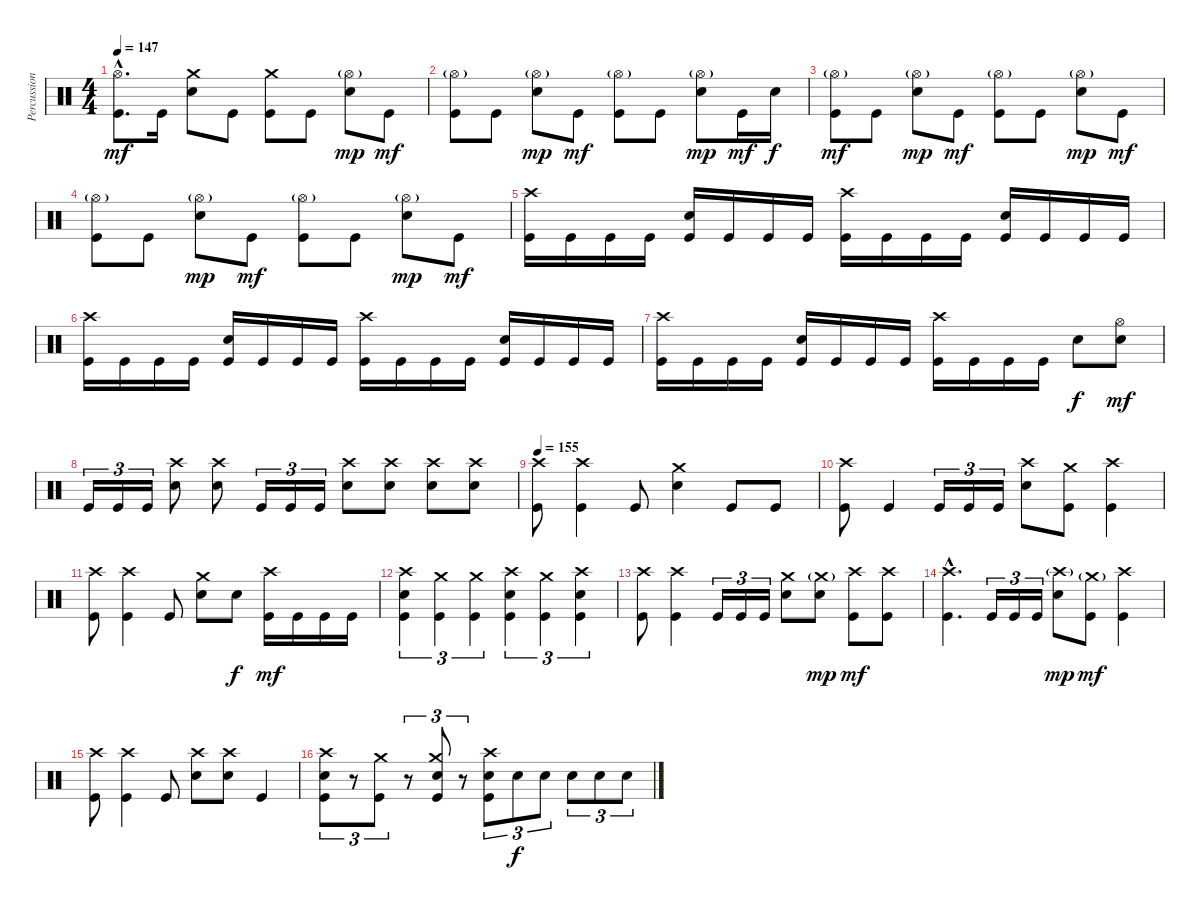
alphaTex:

\track ("Percussion" "Percussion") {instrument percussion}
\staff {score}
\articulation defaults
\ts (4 4)
\tempo 147
\clef neutral
\ks c
("Hi-Hat (open)"{hac} "Kick (hit)"{hac}).8{d dy mf} "Kick (hit)".16 ("Crash medium (hit)" "Electric Snare (hit)").8 "Kick (hit)".8 ("Crash medium (hit)" "Kick (hit)").8 "Kick (hit)".8 ("Hi-Hat (open)"{g} "Electric Snare (hit)").8{dy mp} "Kick (hit)".8{dy mf} |
("Hi-Hat (open)"{g} "Kick (hit)").8 "Kick (hit)".8 ("Hi-Hat (open)"{g} "Electric Snare (hit)").8{dy mp} "Kick (hit)".8{dy mf} ("Hi-Hat (open)"{g} "Kick (hit)").8 "Kick (hit)".8 ("Hi-Hat (open)"{g} "Electric Snare (hit)").8{dy mp} "Kick (hit)".16{dy mf} "Electric Snare (hit)".16{dy f} |
("Hi-Hat (open)"{g} "Kick (hit)").8{dy mf} "Kick (hit)".8 ("Hi-Hat (open)"{g} "Electric Snare (hit)").8{dy mp} "Kick (hit)".8{dy mf} ("Hi-Hat (open)"{g} "Kick (hit)").8 "Kick (hit)".8 ("Hi-Hat (open)"{g} "Electric Snare (hit)").8{dy mp} "Kick (hit)".8{dy mf} |
("Hi-Hat (open)"{g} "Kick (hit)").8 "Kick (hit)".8 ("Hi-Hat (open)"{g} "Electric Snare (hit)").8{dy mp} "Kick (hit)".8{dy mf} ("Hi-Hat (open)"{g} "Kick (hit)").8 "Kick (hit)".8 ("Hi-Hat (open)"{g} "Electric Snare (hit)").8{dy mp} "Kick (hit)".8{dy mf} |
("Crash high (hit)" "Kick (hit)").16 "Kick (hit)".16 "Kick (hit)".16 "Kick (hit)".16 ("Electric Snare (hit)" "Kick (hit)").16 "Kick (hit)".16 "Kick (hit)".16 "Kick (hit)".16 ("Crash high (hit)" "Kick (hit)").16 "Kick (hit)".16 "Kick (hit)".16 "Kick (hit)".16 ("Electric Snare (hit)" "Kick (hit)").16 "Kick (hit)".16 "Kick (hit)".16 "Kick (hit)".16 |
("Crash high (hit)" "Kick (hit)").16 "Kick (hit)".16 "Kick (hit)".16 "Kick (hit)".16 ("Electric Snare (hit)" "Kick (hit)").16 "Kick (hit)".16 "Kick (hit)".16 "Kick (hit)".16 ("Crash high (hit)" "Kick (hit)").16 "Kick (hit)".16 "Kick (hit)".16 "Kick (hit)".16 ("Electric Snare (hit)" "Kick (hit)").16 "Kick (hit)".16 "Kick (hit)".16 "Kick (hit)".16 |
("Crash high (hit)" "Kick (hit)").16 "Kick (hit)".16 "Kick (hit)".16 "Kick (hit)".16 ("Electric Snare (hit)" "Kick (hit)").16 "Kick (hit)".16 "Kick (hit)".16 "Kick (hit)".16 ("Crash high (hit)" "Kick (hit)").16 "Kick (hit)".16 "Kick (hit)".16 "Kick (hit)".16 "Electric Snare (hit)".8{dy f} ("Hi-Hat (open)" "Electric Snare (hit)").8{dy mf} |
"Kick (hit)".16{tu (3 2)} "Kick (hit)".16{tu (3 2)} "Kick (hit)".16{tu (3 2)} ("Crash high (hit)" "Electric Snare (hit)").8 ("Crash high (hit)" "Electric Snare (hit)").8 "Kick (hit)".16{tu (3 2)} "Kick (hit)".16{tu (3 2)} "Kick (hit)".16{tu (3 2)} ("Crash high (hit)" "Electric Snare (hit)").8 ("Crash high (hit)" "Electric Snare (hit)").8 ("Crash high (hit)" "Electric Snare (hit)").8 ("Crash high (hit)" "Electric Snare (hit)").8 |
\tempo 155
("Crash high (hit)" "Kick (hit)").8 ("Crash high (hit)" "Kick (hit)").4 "Kick (hit)".8 ("Crash medium (hit)" "Electric Snare (hit)").4 "Kick (hit)".8 "Kick (hit)".8 |
("Crash high (hit)" "Kick (hit)").8 "Kick (hit)".4 "Kick (hit)".16{tu (3 2)} "Kick (hit)".16{tu (3 2)} "Kick (hit)".16{tu (3 2)} ("Crash high (hit)" "Electric Snare (hit)").8 ("Crash medium (hit)" "Kick (hit)").8 ("Crash high (hit)" "Kick (hit)").4 |
("Crash high (hit)" "Kick (hit)").8 ("Crash high (hit)" "Kick (hit)").4 "Kick (hit)".8 ("Crash medium (hit)" "Electric Snare (hit)").8 "Electric Snare (hit)".8{dy f} ("Crash high (hit)" "Kick (hit)").16{dy mf} "Kick (hit)".16 "Kick (hit)".16 "Kick (hit)".16 |
("Crash high (hit)" "Electric Snare (hit)" "Kick (hit)").4{tu (3 2)} ("Crash medium (hit)" "Kick (hit)").4{tu (3 2)} ("Crash medium (hit)" "Kick (hit)").4{tu (3 2)} ("Crash high (hit)" "Electric Snare (hit)" "Kick (hit)").4{tu (3 2)} ("Crash medium (hit)" "Kick (hit)").4{tu (3 2)} ("Crash high (hit)" "Electric Snare (hit)" "Kick (hit)").4{tu (3 2)} |
("Crash high (hit)" "Kick (hit)").8 ("Crash high (hit)" "Kick (hit)").4 "Kick (hit)".16{tu (3 2)} "Kick (hit)".16{tu (3 2)} "Kick (hit)".16{tu (3 2)} ("Crash medium (hit)" "Electric Snare (hit)").8 ("Crash medium (hit)"{g} "Electric Snare (hit)").8{dy mp} ("Crash high (hit)" "Kick (hit)").8{dy mf} ("Crash high (hit)" "Kick (hit)").8 |
("Crash high (hit)"{hac} "Kick (hit)"{hac}).4{d} "Kick (hit)".16{tu (3 2)} "Kick (hit)".16{tu (3 2)} "Kick (hit)".16{tu (3 2)} ("Crash high (hit)"{g} "Electric Snare (hit)").8{dy mp} ("Crash medium (hit)"{g} "Kick (hit)").8{dy mf} ("Crash high (hit)" "Kick (hit)").4 |
("Crash high (hit)" "Kick (hit)").8 ("Crash high (hit)" "Kick (hit)").4 "Kick (hit)".8 ("Crash high (hit)" "Electric Snare (hit)").8 ("Crash high (hit)" "Electric Snare (hit)").8 "Kick (hit)".4 |
("Crash high (hit)" "Electric Snare (hit)" "Kick (hit)").8{tu (3 2)} r.8{tu (3 2)} ("Crash medium (hit)" "Kick (hit)").8{tu (3 2)} r.8{tu (3 2)} ("Crash medium (hit)" "Electric Snare (hit)" "Kick (hit)").8{tu (3 2)} r.8{tu (3 2)} ("Crash high (hit)" "Electric Snare (hit)" "Kick (hit)").8{tu (3 2)} "Electric Snare (hit)".8{tu (3 2) dy f} "Electric Snare (hit)".8{tu (3 2)} "Electric Snare (hit)".8{tu (3 2)} "Electric Snare (hit)".8{tu (3 2)} "Electric Snare (hit)".8{tu (3 2)}
